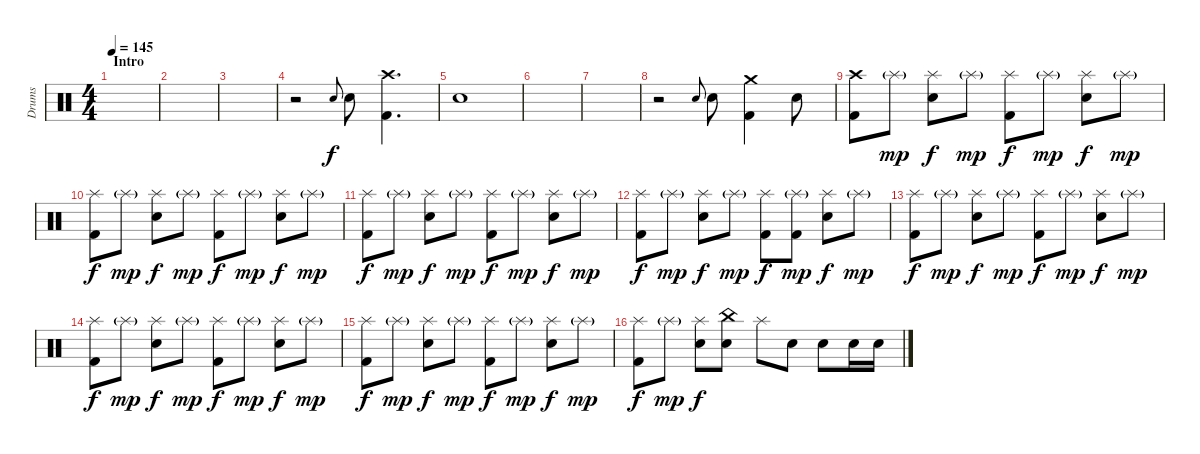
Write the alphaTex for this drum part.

\track ("Drums" "Drums") {instrument percussion}
\staff {score}
\articulation defaults
\ts (4 4)
\section ("" "Intro")
\tempo 145
\clef neutral
\ks c
|
|
|
r.2 "Snare (hit) 2".8{gr onbeat} "Snare (hit) 2".8 ("Crash high (hit)" "Kick (hit) 2").4{d} |
"Snare (hit) 2".1 |
|
|
r.2 "Snare (hit) 2".8{gr onbeat} "Snare (hit) 2".8 ("Crash medium (hit)" "Kick (hit) 2").4 "Snare (hit) 2".8 |
("Crash high (hit)" "Kick (hit) 2").8 "Splash (hit)"{g}.8{dy mp} ("Splash (hit)" "Snare (hit) 2").8{dy f} "Splash (hit)"{g}.8{dy mp} ("Splash (hit)" "Kick (hit) 2").8{dy f} "Splash (hit)"{g}.8{dy mp} ("Splash (hit)" "Snare (hit) 2").8{dy f} "Splash (hit)"{g}.8{dy mp} |
("Splash (hit)" "Kick (hit) 2").8{dy f} "Splash (hit)"{g}.8{dy mp} ("Splash (hit)" "Snare (hit) 2").8{dy f} "Splash (hit)"{g}.8{dy mp} ("Splash (hit)" "Kick (hit) 2").8{dy f} "Splash (hit)"{g}.8{dy mp} ("Splash (hit)" "Snare (hit) 2").8{dy f} "Splash (hit)"{g}.8{dy mp} |
("Splash (hit)" "Kick (hit) 2").8{dy f} "Splash (hit)"{g}.8{dy mp} ("Splash (hit)" "Snare (hit) 2").8{dy f} "Splash (hit)"{g}.8{dy mp} ("Splash (hit)" "Kick (hit) 2").8{dy f} "Splash (hit)"{g}.8{dy mp} ("Splash (hit)" "Snare (hit) 2").8{dy f} "Splash (hit)"{g}.8{dy mp} |
("Splash (hit)" "Kick (hit) 2").8{dy f} "Splash (hit)"{g}.8{dy mp} ("Splash (hit)" "Snare (hit) 2").8{dy f} "Splash (hit)"{g}.8{dy mp} ("Splash (hit)" "Kick (hit) 2").8{dy f} ("Splash (hit)"{g} "Kick (hit) 2").8{dy mp} ("Splash (hit)" "Snare (hit) 2").8{dy f} "Splash (hit)"{g}.8{dy mp} |
("Splash (hit)" "Kick (hit) 2").8{dy f} "Splash (hit)"{g}.8{dy mp} ("Splash (hit)" "Snare (hit) 2").8{dy f} "Splash (hit)"{g}.8{dy mp} ("Splash (hit)" "Kick (hit) 2").8{dy f} "Splash (hit)"{g}.8{dy mp} ("Splash (hit)" "Snare (hit) 2").8{dy f} "Splash (hit)"{g}.8{dy mp} |
("Splash (hit)" "Kick (hit) 2").8{dy f} "Splash (hit)"{g}.8{dy mp} ("Splash (hit)" "Snare (hit) 2").8{dy f} "Splash (hit)"{g}.8{dy mp} ("Splash (hit)" "Kick (hit) 2").8{dy f} "Splash (hit)"{g}.8{dy mp} ("Splash (hit)" "Snare (hit) 2").8{dy f} "Splash (hit)"{g}.8{dy mp} |
("Splash (hit)" "Kick (hit) 2").8{dy f} "Splash (hit)"{g}.8{dy mp} ("Splash (hit)" "Snare (hit) 2").8{dy f} "Splash (hit)"{g}.8{dy mp} ("Splash (hit)" "Kick (hit) 2").8{dy f} "Splash (hit)"{g}.8{dy mp} ("Splash (hit)" "Snare (hit) 2").8{dy f} "Splash (hit)"{g}.8{dy mp} |
("Splash (hit)" "Kick (hit) 2").8{dy f} "Splash (hit)"{g}.8{dy mp} ("Splash (hit)" "Snare (hit) 2").8{dy f} ("China (hit)" "Snare (hit) 2").8 "Splash (hit)".8 "Snare (hit) 2".8 "Snare (hit) 2".8 "Snare (hit) 2".16 "Snare (hit) 2".16
